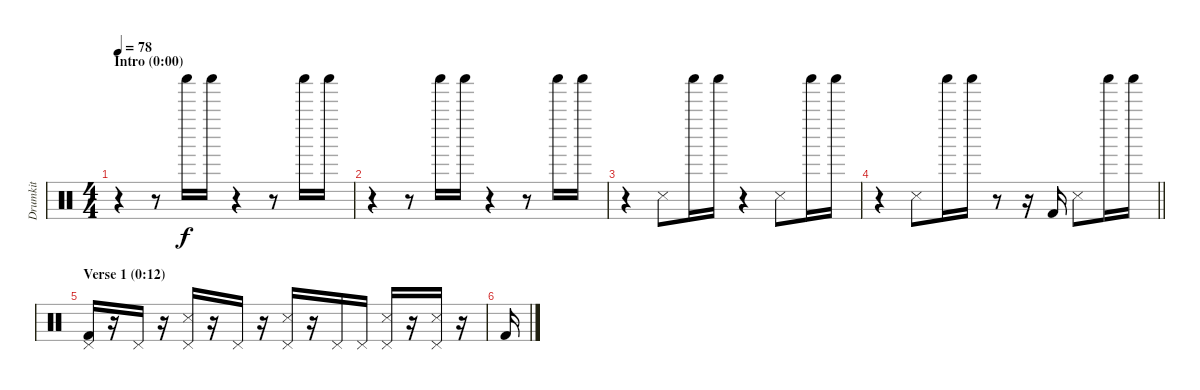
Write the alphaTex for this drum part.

\track ("Drumkit" "Drumkit") {instrument percussion}
\staff {score}
\articulation defaults
\ts (4 4)
\section ("" "Intro (0:00)")
\tempo 78
\clef neutral
\ks c
r.4{dy f} r.8 "Shaker (hit)".16 "Shaker (hit)".16 r.4 r.8 "Shaker (hit)".16 "Shaker (hit)".16 |
r.4 r.8 "Shaker (hit)".16 "Shaker (hit)".16 r.4 r.8 "Shaker (hit)".16 "Shaker (hit)".16 |
r.4 "Snare (side stick) 3".8 "Shaker (hit)".16 "Shaker (hit)".16 r.4 "Snare (side stick) 3".8 "Shaker (hit)".16 "Shaker (hit)".16 |
\barLineRight lightlight
r.4 "Snare (side stick) 3".8 "Shaker (hit)".16 "Shaker (hit)".16 r.8 r.16 "Kick (hit) 2".16 "Snare (side stick) 3".8 "Shaker (hit)".16 "Shaker (hit)".16 |
\section ("" "Verse 1 (0:12)")
("Pedal Hi-Hat (hit)" "Kick (hit) 2").16 r.16 "Pedal Hi-Hat (hit)".16 r.16 ("Pedal Hi-Hat (hit)" "Snare (side stick) 3").16 r.16 "Pedal Hi-Hat (hit)".16 r.16 ("Pedal Hi-Hat (hit)" "Snare (side stick) 3").16 r.16 "Pedal Hi-Hat (hit)".16 "Pedal Hi-Hat (hit)".16 ("Pedal Hi-Hat (hit)" "Snare (side stick) 3").16 r.16 ("Pedal Hi-Hat (hit)" "Snare (side stick) 3").16 r.16 |
"Kick (hit) 2".16
